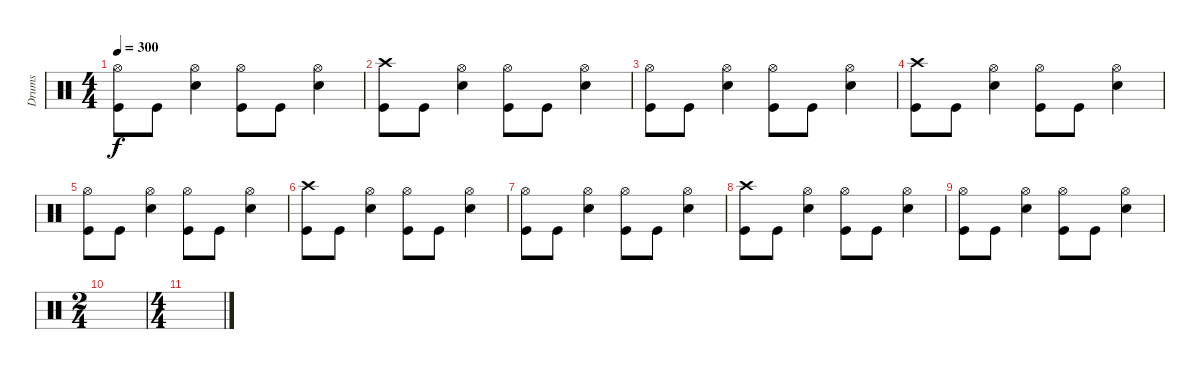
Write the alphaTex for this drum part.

\track ("Drums" "Drums") {instrument percussion}
\staff {score}
\articulation defaults
\ts (4 4)
\tempo 300
\clef neutral
\ks c
("Hi-Hat (open)" "Kick (hit)").8{dy f} "Kick (hit)".8 ("Hi-Hat (open)" "Electric Snare (hit)").4 ("Hi-Hat (open)" "Kick (hit)").8 "Kick (hit)".8 ("Hi-Hat (open)" "Electric Snare (hit)").4 |
("Crash high (hit)" "Kick (hit)").8 "Kick (hit)".8 ("Hi-Hat (open)" "Electric Snare (hit)").4 ("Hi-Hat (open)" "Kick (hit)").8 "Kick (hit)".8 ("Hi-Hat (open)" "Electric Snare (hit)").4 |
("Hi-Hat (open)" "Kick (hit)").8 "Kick (hit)".8 ("Hi-Hat (open)" "Electric Snare (hit)").4 ("Hi-Hat (open)" "Kick (hit)").8 "Kick (hit)".8 ("Hi-Hat (open)" "Electric Snare (hit)").4 |
("Crash high (hit)" "Kick (hit)").8 "Kick (hit)".8 ("Hi-Hat (open)" "Electric Snare (hit)").4 ("Hi-Hat (open)" "Kick (hit)").8 "Kick (hit)".8 ("Hi-Hat (open)" "Electric Snare (hit)").4 |
("Hi-Hat (open)" "Kick (hit)").8 "Kick (hit)".8 ("Hi-Hat (open)" "Electric Snare (hit)").4 ("Hi-Hat (open)" "Kick (hit)").8 "Kick (hit)".8 ("Hi-Hat (open)" "Electric Snare (hit)").4 |
("Crash high (hit)" "Kick (hit)").8 "Kick (hit)".8 ("Hi-Hat (open)" "Electric Snare (hit)").4 ("Hi-Hat (open)" "Kick (hit)").8 "Kick (hit)".8 ("Hi-Hat (open)" "Electric Snare (hit)").4 |
("Hi-Hat (open)" "Kick (hit)").8 "Kick (hit)".8 ("Hi-Hat (open)" "Electric Snare (hit)").4 ("Hi-Hat (open)" "Kick (hit)").8 "Kick (hit)".8 ("Hi-Hat (open)" "Electric Snare (hit)").4 |
("Crash high (hit)" "Kick (hit)").8 "Kick (hit)".8 ("Hi-Hat (open)" "Electric Snare (hit)").4 ("Hi-Hat (open)" "Kick (hit)").8 "Kick (hit)".8 ("Hi-Hat (open)" "Electric Snare (hit)").4 |
("Hi-Hat (open)" "Kick (hit)").8 "Kick (hit)".8 ("Hi-Hat (open)" "Electric Snare (hit)").4 ("Hi-Hat (open)" "Kick (hit)").8 "Kick (hit)".8 ("Hi-Hat (open)" "Electric Snare (hit)").4 |
\ts (2 4)
|
\ts (4 4)
